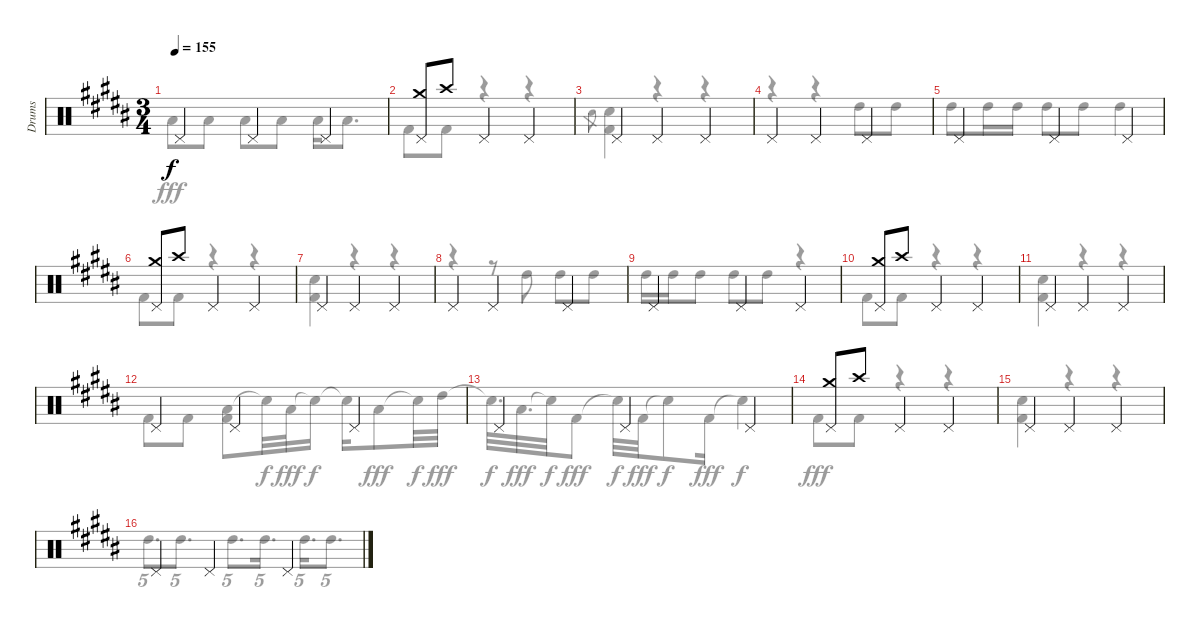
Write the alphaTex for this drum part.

\track ("Drums" "Drums") {instrument percussion}
\staff {score}
\articulation defaults
\voice
\ts (3 4)
\tempo 155
\clef neutral
\ks b "Pedal Hi-Hat (hit)".4{dy f} "Pedal Hi-Hat (hit)".4 "Pedal Hi-Hat (hit)".4
|
("Pedal Hi-Hat (hit)" "Crash medium (hit)").8 "Crash high (hit)".8 "Pedal Hi-Hat (hit)".4 "Pedal Hi-Hat (hit)".4 |
"Pedal Hi-Hat (hit)".4 "Pedal Hi-Hat (hit)".4 "Pedal Hi-Hat (hit)".4 |
"Pedal Hi-Hat (hit)".4 "Pedal Hi-Hat (hit)".4 "Pedal Hi-Hat (hit)".4 |
"Pedal Hi-Hat (hit)".4 "Pedal Hi-Hat (hit)".4 "Pedal Hi-Hat (hit)".4 |
("Pedal Hi-Hat (hit)" "Crash medium (hit)").8 "Crash high (hit)".8 "Pedal Hi-Hat (hit)".4 "Pedal Hi-Hat (hit)".4 |
"Pedal Hi-Hat (hit)".4 "Pedal Hi-Hat (hit)".4 "Pedal Hi-Hat (hit)".4 |
"Pedal Hi-Hat (hit)".4 "Pedal Hi-Hat (hit)".4 "Pedal Hi-Hat (hit)".4 |
"Pedal Hi-Hat (hit)".4 "Pedal Hi-Hat (hit)".4 "Pedal Hi-Hat (hit)".4 |
("Pedal Hi-Hat (hit)" "Crash medium (hit)").8 "Crash high (hit)".8 "Pedal Hi-Hat (hit)".4 "Pedal Hi-Hat (hit)".4 |
"Pedal Hi-Hat (hit)".4 "Pedal Hi-Hat (hit)".4 "Pedal Hi-Hat (hit)".4 |
"Pedal Hi-Hat (hit)".4 "Pedal Hi-Hat (hit)".4 "Pedal Hi-Hat (hit)".4 |
"Pedal Hi-Hat (hit)".4 "Pedal Hi-Hat (hit)".4 "Pedal Hi-Hat (hit)".4 |
("Pedal Hi-Hat (hit)" "Crash medium (hit)").8 "Crash high (hit)".8 "Pedal Hi-Hat (hit)".4 "Pedal Hi-Hat (hit)".4 |
"Pedal Hi-Hat (hit)".4 "Pedal Hi-Hat (hit)".4 "Pedal Hi-Hat (hit)".4 |
"Pedal Hi-Hat (hit)".4 "Pedal Hi-Hat (hit)".4 "Pedal Hi-Hat (hit)".4
\voice
\clef neutral
\ottava regular
\simile none
\ks b "Low Floor Tom (hit)".8{dy fff} "Low Floor Tom (hit)".8 "Low Floor Tom (hit)".8 "Low Floor Tom (hit)".8 "Low Floor Tom (hit)".16 "Low Floor Tom (hit)".8{d}
|
"Kick (hit) 2".8 "Kick (hit) 2".8 r.4 r.4 |
"Snare (hit) 2".8{gr} ("Snare (hit) 2" "Kick (hit) 2").4 r.4 r.4 |
r.4 r.4 "High Tom (hit)".8 "High Tom (hit)".8 |
"High Tom (hit)".8 "High Tom (hit)".16 "High Tom (hit)".16 "High Tom (hit)".8 "High Tom (hit)".8 "High Tom (hit)".4 |
"Kick (hit) 2".8 "Kick (hit) 2".8 r.4 r.4 |
("Snare (hit) 2" "Kick (hit) 2").4 r.4 r.4 |
r.4 r.8 "High Tom (hit)".8 "High Tom (hit)".8 "High Tom (hit)".8 |
"High Tom (hit)".16 "High Tom (hit)".16 "High Tom (hit)".8 "High Tom (hit)".8 "High Tom (hit)".8 r.4 |
"Kick (hit) 2".8 "Kick (hit) 2".8 r.4 r.4 |
("Snare (hit) 2" "Kick (hit) 2").4 r.4 r.4 |
"Kick (hit) 2".8 "Kick (hit) 2".8 ("Low Tom (hit)" "Kick (hit) 2").8 "Snare (hit)"{t}.32{dy f} "Low Tom (hit)".32{dy fff} "Snare (hit)"{t}.16{dy f} "Snare (hit)"{t}.16 "Low Tom (hit)".8{dy fff} "Snare (hit)"{t}.32{dy f} "High Tom (hit)".32{dy fff} |
"Snare (hit)"{t}.32{d dy f} "Low Tom (hit)".32{d dy fff} "Snare (hit)"{t}.32{dy f} "Kick (hit) 2".8{dy fff} "Snare (hit)"{t}.32{dy f} "Kick (hit) 2".32{dy fff} "Snare (hit)"{t}.8{dy f} "Kick (hit) 2".16{dy fff} "Snare (hit)"{t}.4{dy f} |
"Kick (hit) 2".8{dy fff} "Kick (hit) 2".8 r.4 r.4 |
("Snare (hit) 2" "Kick (hit) 2").4 r.4 r.4 |
"High Tom (hit)".8{d tu (5 4)} "High Tom (hit)".8{d tu (5 4)} "High Tom (hit)".8{d tu (5 4)} "High Tom (hit)".16{d tu (5 4)} "High Tom (hit)".16{d tu (5 4)} "High Tom (hit)".8{d tu (5 4)}
